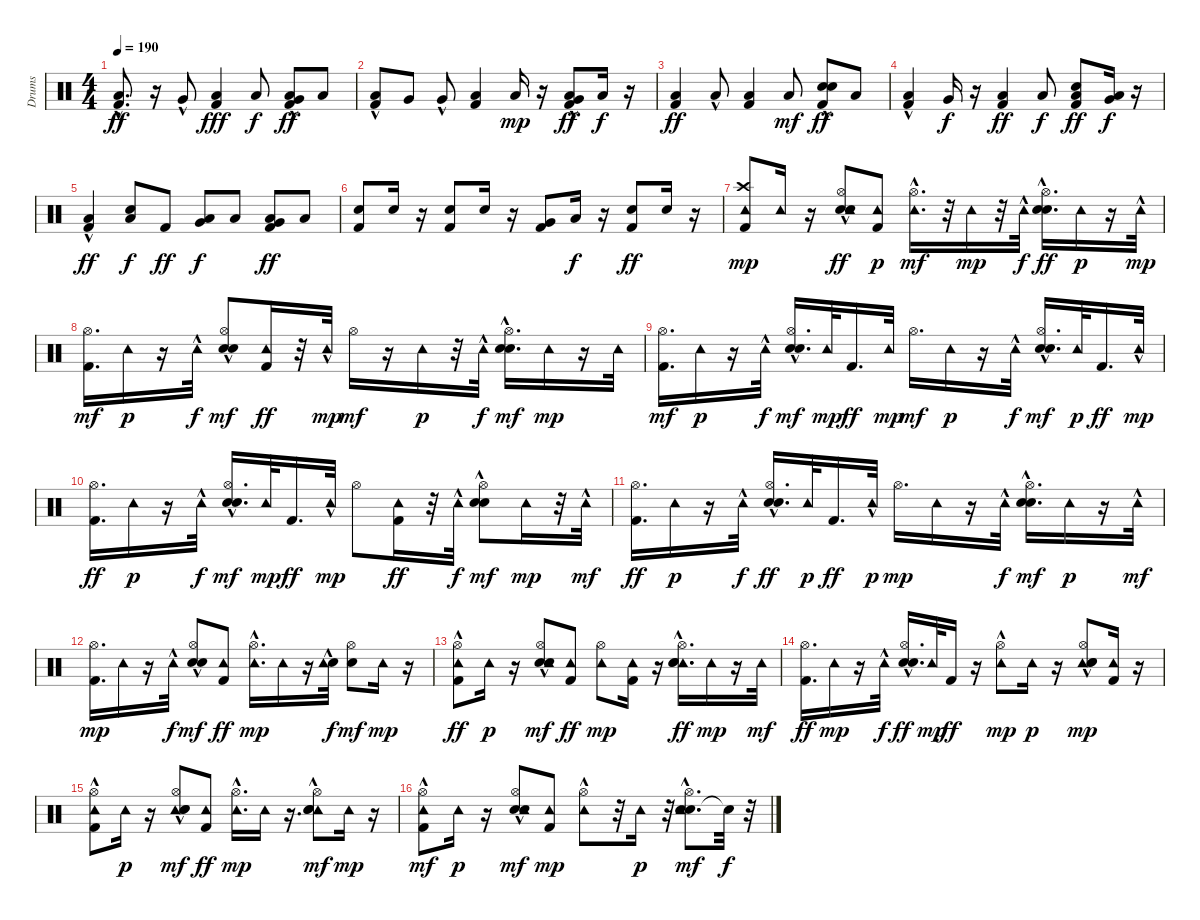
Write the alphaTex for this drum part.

\track ("Drums" "Drums") {instrument percussion}
\staff {score}
\articulation defaults
\ts (4 4)
\tempo 190
\clef neutral
\ks c
("Low Tom (hit)"{hac} "Kick (hit) 2"{hac}).8{d dy ff} r.16 "Very Low Tom (hit)"{hac}.8 ("Low Tom (hit)" "Kick (hit) 2").4{dy fff} "Low Tom (hit)".8{dy f} ("Low Floor Tom (hit)"{hac} "Very Low Tom (hit)"{hac} "Kick (hit) 2").8{dy ff} "Low Tom (hit)".8 |
("Kick (hit) 2"{hac} "Low Tom (hit)").8 "Very Low Tom (hit)".8 "Very Low Tom (hit)"{hac}.8 ("Kick (hit) 2" "Low Tom (hit)").4 "Low Tom (hit)".16{dy mp} r.16 ("Low Floor Tom (hit)"{hac} "Very Low Tom (hit)"{hac} "Kick (hit) 2").8{dy ff} "Low Tom (hit)".16{dy f} r.16 |
("Kick (hit) 2" "Low Tom (hit)").4{dy ff} "Low Floor Tom (hit)"{hac}.8 ("Kick (hit) 2" "Low Tom (hit)").4 "Low Tom (hit)".8{dy mf} ("Kick (hit) 2" "Electric Snare (hit)" "Snare (hit) 2"{hac}).8{dy ff} "Low Tom (hit)".8 |
("Kick (hit) 2" "Low Tom (hit)"{hac}).4 "Very Low Tom (hit)".16{dy f} r.16 ("Kick (hit) 2" "Low Tom (hit)").4{dy ff} "Low Tom (hit)".8{dy f} ("Kick (hit) 2" "Snare (hit) 2" "Low Floor Tom (hit)").8{dy ff} ("Low Tom (hit)" "Very Low Tom (hit)").16{dy f} r.16 |
("Kick (hit) 2" "Low Tom (hit)"{hac}).4{dy ff} ("Snare (hit) 2" "Low Tom (hit)").8{dy f} "Kick (hit) 2".8{dy ff} ("Low Tom (hit)" "Very Low Tom (hit)").8{dy f} "Low Tom (hit)".8 ("Kick (hit) 2" "Low Floor Tom (hit)" "Very Low Tom (hit)").8{dy ff} "Low Tom (hit)".8 |
("Kick (hit) 2" "Snare (hit) 2").8 "Snare (hit) 2".16 r.16 ("Kick (hit) 2" "Snare (hit) 2").8 "Snare (hit) 2".16 r.16 ("Kick (hit) 2" "Very Low Tom (hit)").8 "Low Floor Tom (hit)".16{dy f} r.16 ("Kick (hit) 2" "Snare (hit) 2").8{dy ff} "Electric Snare (hit)".16 r.16 |
("Kick (hit) 2" "Crash high (hit)" "Tambourine (hit)").8{dy mp} "Tambourine (hit)".16 r.16 ("Snare (hit) 2" "Hi-Hat (open)" "Tambourine (hit)"{hac} "Hand Clap (hit)"{hac}).8{dy ff} ("Kick (hit) 2" "Tambourine (hit)").8{dy p} ("Tambourine (hit)"{hac} "Hi-Hat (open)").16{d dy mf} r.32 "Tambourine (hit)".16{dy mp} r.32 "Tambourine (hit)"{hac}.32{dy f} ("Snare (hit) 2" "Hi-Hat (open)" "Hand Clap (hit)"{hac}).16{d dy ff} "Tambourine (hit)".16{dy p} r.16 "Tambourine (hit)"{hac}.32{dy mp} |
("Kick (hit) 2" "Hi-Hat (open)").16{d dy mf} "Tambourine (hit)".16{dy p} r.16 "Tambourine (hit)"{hac}.32{dy f} ("Hand Clap (hit)"{hac} "Snare (hit) 2" "Hi-Hat (open)").8{dy mf} ("Tambourine (hit)" "Kick (hit) 2").16{dy ff} r.32 "Tambourine (hit)"{hac}.32{dy mp} "Hi-Hat (open)".16{dy mf} r.16 "Tambourine (hit)".16{dy p} r.32 "Tambourine (hit)"{hac}.32{dy f} ("Hand Clap (hit)"{hac} "Snare (hit) 2" "Hi-Hat (open)").16{d dy mf} "Tambourine (hit)".16{dy mp} r.16 "Tambourine (hit)".32 |
("Kick (hit) 2" "Hi-Hat (open)").16{d dy mf} "Tambourine (hit)".16{dy p} r.16 "Tambourine (hit)"{hac}.32{dy f} ("Hand Clap (hit)"{hac} "Snare (hit) 2" "Hi-Hat (open)").16{d dy mf} "Tambourine (hit)".32{dy mp} "Kick (hit) 2".16{d dy ff} "Tambourine (hit)".32{dy mp} "Hi-Hat (open)".16{d dy mf} "Tambourine (hit)".16{dy p} r.16 "Tambourine (hit)"{hac}.32{dy f} ("Hand Clap (hit)"{hac} "Snare (hit) 2" "Hi-Hat (open)").16{d dy mf} "Tambourine (hit)".32{dy p} "Kick (hit) 2".16{d dy ff} "Tambourine (hit)"{hac}.32{dy mp} |
("Hi-Hat (open)" "Kick (hit) 2").16{d dy ff} "Tambourine (hit)".16{dy p} r.16 "Tambourine (hit)"{hac}.32{dy f} ("Hand Clap (hit)"{hac} "Snare (hit) 2" "Hi-Hat (open)").16{d dy mf} "Tambourine (hit)".32{dy mp} "Kick (hit) 2".16{d dy ff} "Tambourine (hit)"{hac}.32{dy mp} "Hi-Hat (open)".8 ("Tambourine (hit)" "Kick (hit) 2").16{dy ff} r.32 "Tambourine (hit)"{hac}.32{dy f} ("Hand Clap (hit)"{hac} "Snare (hit) 2" "Hi-Hat (open)").8{dy mf} "Tambourine (hit)".16{dy mp} r.32 "Tambourine (hit)"{hac}.32{dy mf} |
("Hi-Hat (open)" "Kick (hit) 2").16{d dy ff} "Tambourine (hit)".16{dy p} r.16 "Tambourine (hit)"{hac}.32{dy f} ("Hand Clap (hit)"{hac} "Hi-Hat (open)" "Snare (hit) 2").16{d dy ff} "Tambourine (hit)".32{dy p} "Kick (hit) 2".16{d dy ff} "Tambourine (hit)"{hac}.32{dy p} "Hi-Hat (open)".16{d dy mp} "Tambourine (hit)".16 r.16 "Tambourine (hit)"{hac}.32{dy f} ("Hand Clap (hit)"{hac} "Snare (hit) 2" "Hi-Hat (open)").16{d dy mf} "Tambourine (hit)".16{dy p} r.16 "Tambourine (hit)"{hac}.32{dy mf} |
("Kick (hit) 2" "Hi-Hat (open)").16{d dy mp} "Tambourine (hit)".16 r.16 "Tambourine (hit)"{hac}.32{dy f} ("Hand Clap (hit)"{hac} "Snare (hit) 2" "Hi-Hat (open)").8{dy mf} ("Tambourine (hit)" "Kick (hit) 2").8{dy ff} ("Tambourine (hit)"{hac} "Hi-Hat (open)").16{d dy mp} "Tambourine (hit)".16 r.16 ("Hand Clap (hit)"{hac} "Tambourine (hit)"{hac}).32{dy f} ("Snare (hit) 2" "Hi-Hat (open)").8{dy mf} "Tambourine (hit)".16{dy mp} r.16 |
("Tambourine (hit)"{hac} "Hi-Hat (open)" "Kick (hit) 2").8{dy ff} "Tambourine (hit)".16{dy p} r.16 ("Hand Clap (hit)"{hac} "Hi-Hat (open)" "Tambourine (hit)"{hac} "Snare (hit) 2").8{dy mf} ("Tambourine (hit)" "Kick (hit) 2").8{dy ff} ("Tambourine (hit)" "Hi-Hat (open)").8{dy mp} ("Tambourine (hit)" "Kick (hit) 2").16 r.16 ("Tambourine (hit)"{hac} "Hand Clap (hit)"{hac} "Hi-Hat (open)" "Snare (hit) 2").16{d dy ff} "Tambourine (hit)".16{dy mp} r.16 "Tambourine (hit)".32{dy mf} |
("Hi-Hat (open)" "Kick (hit) 2").16{d dy ff} "Tambourine (hit)".16{dy mp} r.16 "Tambourine (hit)"{hac}.32{dy f} ("Hand Clap (hit)"{hac} "Hi-Hat (open)" "Snare (hit) 2").16{d dy ff} "Tambourine (hit)".32{dy mp} "Kick (hit) 2".16{dy ff} r.16 ("Tambourine (hit)"{hac} "Hi-Hat (open)").8{dy mp} "Tambourine (hit)".16{dy p} r.16 ("Tambourine (hit)"{hac} "Hand Clap (hit)"{hac} "Snare (hit) 2" "Hi-Hat (open)").8{dy mp} ("Kick (hit) 2" "Tambourine (hit)").16 r.16 |
("Tambourine (hit)"{hac} "Kick (hit) 2" "Hi-Hat (open)").8 "Tambourine (hit)".16{dy p} r.16 ("Tambourine (hit)"{hac} "Hand Clap (hit)"{hac} "Snare (hit) 2" "Hi-Hat (open)").8{dy mf} ("Tambourine (hit)" "Kick (hit) 2").8{dy ff} ("Tambourine (hit)"{hac} "Hi-Hat (open)").16{d dy mp} "Tambourine (hit)".16 r.16{d} ("Tambourine (hit)"{hac} "Hand Clap (hit)"{hac} "Snare (hit) 2" "Hi-Hat (open)").8{dy mf} "Tambourine (hit)".16{dy mp} r.16 |
("Tambourine (hit)"{hac} "Kick (hit) 2" "Hi-Hat (open)").8{dy mf} "Tambourine (hit)".16{dy p} r.16 ("Hand Clap (hit)"{hac} "Tambourine (hit)"{hac} "Snare (hit) 2" "Hi-Hat (open)").8{dy mf} ("Kick (hit) 2" "Tambourine (hit)").8{dy mp} ("Hi-Hat (open)" "Tambourine (hit)"{hac}).8 r.32 "Tambourine (hit)".16{dy p} r.32 ("Snare (hit) 2" "Hi-Hat (open)" "Hand Clap (hit)"{hac} "Tambourine (hit)"{hac}).8{d dy mf} "Snare (hit)"{t}.32{dy f} r.32
